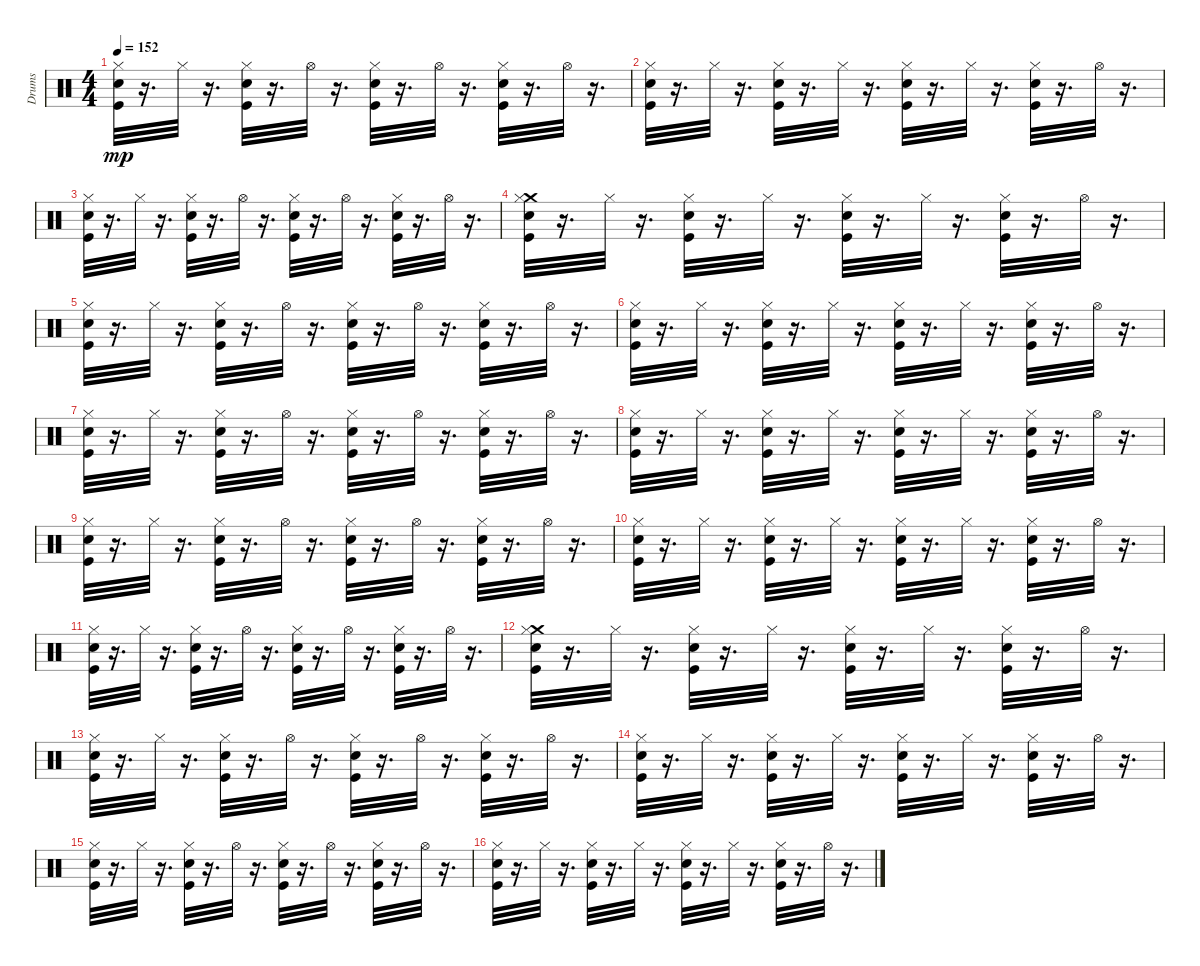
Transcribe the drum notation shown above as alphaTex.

\track ("Drums   " "Drums   ") {instrument percussion}
\staff {score}
\articulation defaults
\ts (4 4)
\tempo 152
\clef neutral
\ks c
("Snare (hit) 2" "Hi-Hat (closed)" "Kick (hit)").32{dy mp} r.16{d} "Hi-Hat (closed)".32 r.16{d} ("Snare (hit) 2" "Hi-Hat (closed)" "Kick (hit)").32 r.16{d} "Hi-Hat (open)".32 r.16{d} ("Snare (hit) 2" "Hi-Hat (closed)" "Kick (hit)").32 r.16{d} "Hi-Hat (open)".32 r.16{d} ("Snare (hit) 2" "Hi-Hat (closed)" "Kick (hit)").32 r.16{d} "Hi-Hat (open)".32 r.16{d} |
("Snare (hit) 2" "Hi-Hat (closed)" "Kick (hit)").32 r.16{d} "Hi-Hat (closed)".32 r.16{d} ("Snare (hit) 2" "Hi-Hat (closed)" "Kick (hit)").32 r.16{d} "Hi-Hat (closed)".32 r.16{d} ("Snare (hit) 2" "Hi-Hat (closed)" "Kick (hit)").32 r.16{d} "Hi-Hat (closed)".32 r.16{d} ("Snare (hit) 2" "Hi-Hat (closed)" "Kick (hit)").32 r.16{d} "Hi-Hat (open)".32 r.16{d} |
("Snare (hit) 2" "Hi-Hat (closed)" "Kick (hit)").32 r.16{d} "Hi-Hat (closed)".32 r.16{d} ("Snare (hit) 2" "Hi-Hat (closed)" "Kick (hit)").32 r.16{d} "Hi-Hat (open)".32 r.16{d} ("Snare (hit) 2" "Hi-Hat (closed)" "Kick (hit)").32 r.16{d} "Hi-Hat (open)".32 r.16{d} ("Snare (hit) 2" "Hi-Hat (closed)" "Kick (hit)").32 r.16{d} "Hi-Hat (open)".32 r.16{d} |
("Crash medium (hit)" "Snare (hit) 2" "Hi-Hat (closed)" "Kick (hit)").32 r.16{d} "Hi-Hat (closed)".32 r.16{d} ("Snare (hit) 2" "Hi-Hat (closed)" "Kick (hit)").32 r.16{d} "Hi-Hat (closed)".32 r.16{d} ("Snare (hit) 2" "Hi-Hat (closed)" "Kick (hit)").32 r.16{d} "Hi-Hat (closed)".32 r.16{d} ("Snare (hit) 2" "Hi-Hat (closed)" "Kick (hit)").32 r.16{d} "Hi-Hat (open)".32 r.16{d} |
("Snare (hit) 2" "Hi-Hat (closed)" "Kick (hit)").32 r.16{d} "Hi-Hat (closed)".32 r.16{d} ("Snare (hit) 2" "Hi-Hat (closed)" "Kick (hit)").32 r.16{d} "Hi-Hat (open)".32 r.16{d} ("Snare (hit) 2" "Hi-Hat (closed)" "Kick (hit)").32 r.16{d} "Hi-Hat (open)".32 r.16{d} ("Snare (hit) 2" "Hi-Hat (closed)" "Kick (hit)").32 r.16{d} "Hi-Hat (open)".32 r.16{d} |
("Snare (hit) 2" "Hi-Hat (closed)" "Kick (hit)").32 r.16{d} "Hi-Hat (closed)".32 r.16{d} ("Snare (hit) 2" "Hi-Hat (closed)" "Kick (hit)").32 r.16{d} "Hi-Hat (closed)".32 r.16{d} ("Snare (hit) 2" "Hi-Hat (closed)" "Kick (hit)").32 r.16{d} "Hi-Hat (closed)".32 r.16{d} ("Snare (hit) 2" "Hi-Hat (closed)" "Kick (hit)").32 r.16{d} "Hi-Hat (open)".32 r.16{d} |
("Snare (hit) 2" "Hi-Hat (closed)" "Kick (hit)").32 r.16{d} "Hi-Hat (closed)".32 r.16{d} ("Snare (hit) 2" "Hi-Hat (closed)" "Kick (hit)").32 r.16{d} "Hi-Hat (open)".32 r.16{d} ("Snare (hit) 2" "Hi-Hat (closed)" "Kick (hit)").32 r.16{d} "Hi-Hat (open)".32 r.16{d} ("Snare (hit) 2" "Hi-Hat (closed)" "Kick (hit)").32 r.16{d} "Hi-Hat (open)".32 r.16{d} |
("Snare (hit) 2" "Hi-Hat (closed)" "Kick (hit)").32 r.16{d} "Hi-Hat (closed)".32 r.16{d} ("Snare (hit) 2" "Hi-Hat (closed)" "Kick (hit)").32 r.16{d} "Hi-Hat (closed)".32 r.16{d} ("Snare (hit) 2" "Hi-Hat (closed)" "Kick (hit)").32 r.16{d} "Hi-Hat (closed)".32 r.16{d} ("Snare (hit) 2" "Hi-Hat (closed)" "Kick (hit)").32 r.16{d} "Hi-Hat (open)".32 r.16{d} |
("Snare (hit) 2" "Hi-Hat (closed)" "Kick (hit)").32 r.16{d} "Hi-Hat (closed)".32 r.16{d} ("Snare (hit) 2" "Hi-Hat (closed)" "Kick (hit)").32 r.16{d} "Hi-Hat (open)".32 r.16{d} ("Snare (hit) 2" "Hi-Hat (closed)" "Kick (hit)").32 r.16{d} "Hi-Hat (open)".32 r.16{d} ("Snare (hit) 2" "Hi-Hat (closed)" "Kick (hit)").32 r.16{d} "Hi-Hat (open)".32 r.16{d} |
("Snare (hit) 2" "Hi-Hat (closed)" "Kick (hit)").32 r.16{d} "Hi-Hat (closed)".32 r.16{d} ("Snare (hit) 2" "Hi-Hat (closed)" "Kick (hit)").32 r.16{d} "Hi-Hat (closed)".32 r.16{d} ("Snare (hit) 2" "Hi-Hat (closed)" "Kick (hit)").32 r.16{d} "Hi-Hat (closed)".32 r.16{d} ("Snare (hit) 2" "Hi-Hat (closed)" "Kick (hit)").32 r.16{d} "Hi-Hat (open)".32 r.16{d} |
("Snare (hit) 2" "Hi-Hat (closed)" "Kick (hit)").32 r.16{d} "Hi-Hat (closed)".32 r.16{d} ("Snare (hit) 2" "Hi-Hat (closed)" "Kick (hit)").32 r.16{d} "Hi-Hat (open)".32 r.16{d} ("Snare (hit) 2" "Hi-Hat (closed)" "Kick (hit)").32 r.16{d} "Hi-Hat (open)".32 r.16{d} ("Snare (hit) 2" "Hi-Hat (closed)" "Kick (hit)").32 r.16{d} "Hi-Hat (open)".32 r.16{d} |
("Crash medium (hit)" "Snare (hit) 2" "Hi-Hat (closed)" "Kick (hit)").32 r.16{d} "Hi-Hat (closed)".32 r.16{d} ("Snare (hit) 2" "Hi-Hat (closed)" "Kick (hit)").32 r.16{d} "Hi-Hat (closed)".32 r.16{d} ("Snare (hit) 2" "Hi-Hat (closed)" "Kick (hit)").32 r.16{d} "Hi-Hat (closed)".32 r.16{d} ("Snare (hit) 2" "Hi-Hat (closed)" "Kick (hit)").32 r.16{d} "Hi-Hat (open)".32 r.16{d} |
("Snare (hit) 2" "Hi-Hat (closed)" "Kick (hit)").32 r.16{d} "Hi-Hat (closed)".32 r.16{d} ("Snare (hit) 2" "Hi-Hat (closed)" "Kick (hit)").32 r.16{d} "Hi-Hat (open)".32 r.16{d} ("Snare (hit) 2" "Hi-Hat (closed)" "Kick (hit)").32 r.16{d} "Hi-Hat (open)".32 r.16{d} ("Snare (hit) 2" "Hi-Hat (closed)" "Kick (hit)").32 r.16{d} "Hi-Hat (open)".32 r.16{d} |
("Snare (hit) 2" "Hi-Hat (closed)" "Kick (hit)").32 r.16{d} "Hi-Hat (closed)".32 r.16{d} ("Snare (hit) 2" "Hi-Hat (closed)" "Kick (hit)").32 r.16{d} "Hi-Hat (closed)".32 r.16{d} ("Snare (hit) 2" "Hi-Hat (closed)" "Kick (hit)").32 r.16{d} "Hi-Hat (closed)".32 r.16{d} ("Snare (hit) 2" "Hi-Hat (closed)" "Kick (hit)").32 r.16{d} "Hi-Hat (open)".32 r.16{d} |
("Snare (hit) 2" "Hi-Hat (closed)" "Kick (hit)").32 r.16{d} "Hi-Hat (closed)".32 r.16{d} ("Snare (hit) 2" "Hi-Hat (closed)" "Kick (hit)").32 r.16{d} "Hi-Hat (open)".32 r.16{d} ("Snare (hit) 2" "Hi-Hat (closed)" "Kick (hit)").32 r.16{d} "Hi-Hat (open)".32 r.16{d} ("Snare (hit) 2" "Hi-Hat (closed)" "Kick (hit)").32 r.16{d} "Hi-Hat (open)".32 r.16{d} |
("Snare (hit) 2" "Hi-Hat (closed)" "Kick (hit)").32 r.16{d} "Hi-Hat (closed)".32 r.16{d} ("Snare (hit) 2" "Hi-Hat (closed)" "Kick (hit)").32 r.16{d} "Hi-Hat (closed)".32 r.16{d} ("Snare (hit) 2" "Hi-Hat (closed)" "Kick (hit)").32 r.16{d} "Hi-Hat (closed)".32 r.16{d} ("Snare (hit) 2" "Hi-Hat (closed)" "Kick (hit)").32 r.16{d} "Hi-Hat (open)".32 r.16{d}
